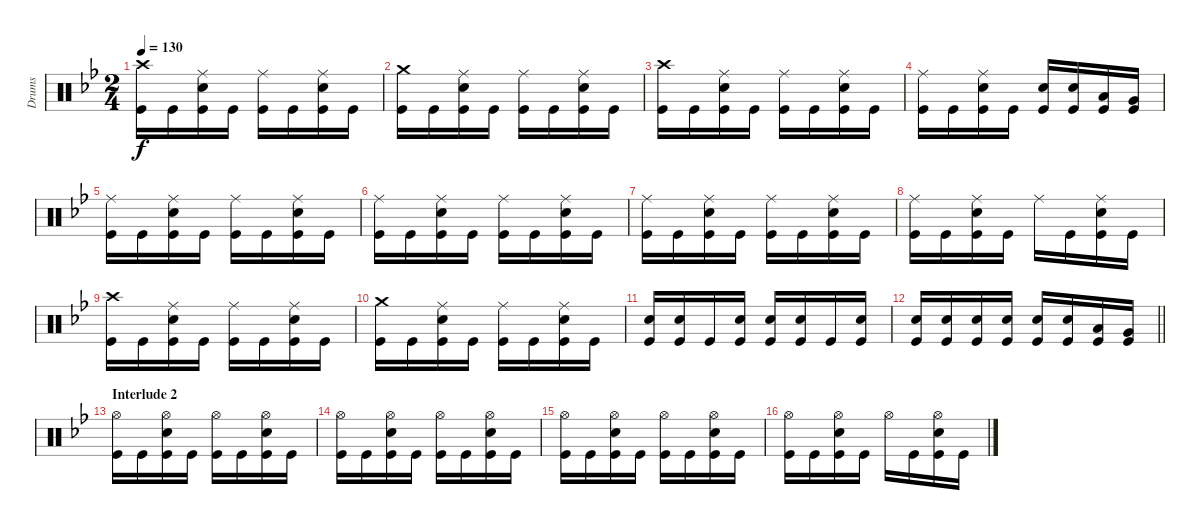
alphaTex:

\track ("Drums" "Drums") {instrument percussion}
\staff {score}
\articulation defaults
\ts (2 4)
\tempo 130
\clef neutral
\ks gminor
("Kick (hit)" "Crash high (hit)").16{dy f} "Kick (hit)".16 ("Kick (hit)" "Ride (middle)" "Snare (hit) 2").16 "Kick (hit)".16 ("Kick (hit)" "Ride (middle)").16 "Kick (hit)".16 ("Kick (hit)" "Ride (middle)" "Snare (hit) 2").16 "Kick (hit)".16 |
("Kick (hit)" "Crash medium (hit)").16 "Kick (hit)".16 ("Kick (hit)" "Ride (middle)" "Snare (hit) 2").16 "Kick (hit)".16 ("Kick (hit)" "Ride (middle)").16 "Kick (hit)".16 ("Kick (hit)" "Ride (middle)" "Snare (hit) 2").16 "Kick (hit)".16 |
("Kick (hit)" "Crash high (hit)").16 "Kick (hit)".16 ("Kick (hit)" "Ride (middle)" "Snare (hit) 2").16 "Kick (hit)".16 ("Kick (hit)" "Ride (middle)").16 "Kick (hit)".16 ("Kick (hit)" "Ride (middle)" "Snare (hit) 2").16 "Kick (hit)".16 |
("Kick (hit)" "Ride (middle)").16 "Kick (hit)".16 ("Kick (hit)" "Ride (middle)" "Snare (hit) 2").16 "Kick (hit)".16 ("Kick (hit)" "Snare (hit) 2").16 ("Kick (hit)" "Snare (hit) 2").16 ("Kick (hit)" "Low Tom (hit)").16 ("Kick (hit)" "Very Low Tom (hit)").16 |
("Kick (hit)" "Ride (middle)").16 "Kick (hit)".16 ("Kick (hit)" "Snare (hit) 2" "Ride (middle)").16 "Kick (hit)".16 ("Kick (hit)" "Ride (middle)").16 "Kick (hit)".16 ("Kick (hit)" "Snare (hit) 2" "Ride (middle)").16 "Kick (hit)".16 |
("Kick (hit)" "Ride (middle)").16 "Kick (hit)".16 ("Kick (hit)" "Snare (hit) 2" "Ride (middle)").16 "Kick (hit)".16 ("Kick (hit)" "Ride (middle)").16 "Kick (hit)".16 ("Kick (hit)" "Snare (hit) 2" "Ride (middle)").16 "Kick (hit)".16 |
("Kick (hit)" "Ride (middle)").16 "Kick (hit)".16 ("Kick (hit)" "Snare (hit) 2" "Ride (middle)").16 "Kick (hit)".16 ("Kick (hit)" "Ride (middle)").16 "Kick (hit)".16 ("Kick (hit)" "Snare (hit) 2" "Ride (middle)").16 "Kick (hit)".16 |
("Kick (hit)" "Ride (middle)").16 "Kick (hit)".16 ("Kick (hit)" "Snare (hit) 2" "Ride (middle)").16 "Kick (hit)".16 "Ride (middle)".16 "Kick (hit)".16 ("Kick (hit)" "Snare (hit) 2" "Ride (middle)").16 "Kick (hit)".16 |
("Kick (hit)" "Crash high (hit)").16 "Kick (hit)".16 ("Kick (hit)" "Ride (middle)" "Snare (hit) 2").16 "Kick (hit)".16 ("Kick (hit)" "Ride (middle)").16 "Kick (hit)".16 ("Kick (hit)" "Ride (middle)" "Snare (hit) 2").16 "Kick (hit)".16 |
("Kick (hit)" "Crash medium (hit)").16 "Kick (hit)".16 ("Kick (hit)" "Ride (middle)" "Snare (hit) 2").16 "Kick (hit)".16 ("Kick (hit)" "Ride (middle)").16 "Kick (hit)".16 ("Kick (hit)" "Ride (middle)" "Snare (hit) 2").16 "Kick (hit)".16 |
("Snare (hit) 2" "Kick (hit)").16 ("Snare (hit) 2" "Kick (hit)").16 "Kick (hit)".16 ("Snare (hit) 2" "Kick (hit)").16 ("Snare (hit) 2" "Kick (hit)").16 ("Snare (hit) 2" "Kick (hit)").16 "Kick (hit)".16 ("Kick (hit)" "Snare (hit) 2").16 |
\barLineRight lightlight
("Snare (hit) 2" "Kick (hit)").16 ("Snare (hit) 2" "Kick (hit)").16 ("Snare (hit) 2" "Kick (hit)").16 ("Snare (hit) 2" "Kick (hit)").16 ("Snare (hit) 2" "Kick (hit)").16 ("Snare (hit) 2" "Kick (hit)").16 ("Low Tom (hit)" "Kick (hit)").16 ("Very Low Tom (hit)" "Kick (hit)").16 |
\section ("" "Interlude 2")
("Kick (hit)" "Hi-Hat (open)").16 "Kick (hit)".16 ("Kick (hit)" "Snare (hit) 2" "Hi-Hat (open)").16 "Kick (hit)".16 ("Kick (hit)" "Hi-Hat (open)").16 "Kick (hit)".16 ("Kick (hit)" "Snare (hit) 2" "Hi-Hat (open)").16 "Kick (hit)".16 |
("Kick (hit)" "Hi-Hat (open)").16 "Kick (hit)".16 ("Kick (hit)" "Snare (hit) 2" "Hi-Hat (open)").16 "Kick (hit)".16 ("Kick (hit)" "Hi-Hat (open)").16 "Kick (hit)".16 ("Kick (hit)" "Snare (hit) 2" "Hi-Hat (open)").16 "Kick (hit)".16 |
("Kick (hit)" "Hi-Hat (open)").16 "Kick (hit)".16 ("Kick (hit)" "Snare (hit) 2" "Hi-Hat (open)").16 "Kick (hit)".16 ("Kick (hit)" "Hi-Hat (open)").16 "Kick (hit)".16 ("Kick (hit)" "Snare (hit) 2" "Hi-Hat (open)").16 "Kick (hit)".16 |
("Kick (hit)" "Hi-Hat (open)").16 "Kick (hit)".16 ("Kick (hit)" "Snare (hit) 2" "Hi-Hat (open)").16 "Kick (hit)".16 "Hi-Hat (open)".16 "Kick (hit)".16 ("Kick (hit)" "Snare (hit) 2" "Hi-Hat (open)").16 "Kick (hit)".16
